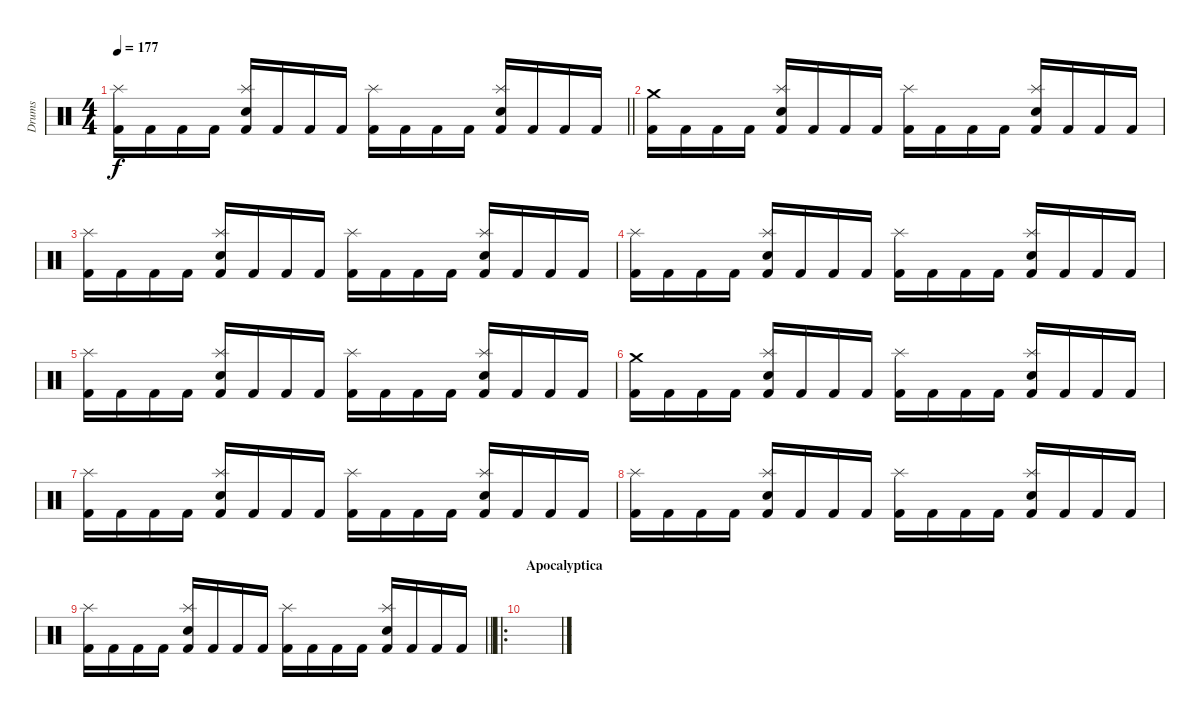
\track ("Drums" "Drums") {instrument percussion}
\staff {score}
\articulation defaults
\ts (4 4)
\tempo 177
\clef neutral
\barLineRight lightlight
\ks c
("Kick (hit) 2" "Splash (hit)").16{dy f} "Kick (hit) 2".16 "Kick (hit) 2".16 "Kick (hit) 2".16 ("Kick (hit) 2" "Snare (hit) 2" "Splash (hit)").16 "Kick (hit) 2".16 "Kick (hit) 2".16 "Kick (hit) 2".16 ("Kick (hit) 2" "Splash (hit)").16 "Kick (hit) 2".16 "Kick (hit) 2".16 "Kick (hit) 2".16 ("Kick (hit) 2" "Snare (hit) 2" "Splash (hit)").16 "Kick (hit) 2".16 "Kick (hit) 2".16 "Kick (hit) 2".16 |
("Kick (hit) 2" "Crash medium (hit)").16 "Kick (hit) 2".16 "Kick (hit) 2".16 "Kick (hit) 2".16 ("Kick (hit) 2" "Snare (hit) 2" "Splash (hit)").16 "Kick (hit) 2".16 "Kick (hit) 2".16 "Kick (hit) 2".16 ("Kick (hit) 2" "Splash (hit)").16 "Kick (hit) 2".16 "Kick (hit) 2".16 "Kick (hit) 2".16 ("Kick (hit) 2" "Snare (hit) 2" "Splash (hit)").16 "Kick (hit) 2".16 "Kick (hit) 2".16 "Kick (hit) 2".16 |
("Kick (hit) 2" "Splash (hit)").16 "Kick (hit) 2".16 "Kick (hit) 2".16 "Kick (hit) 2".16 ("Kick (hit) 2" "Snare (hit) 2" "Splash (hit)").16 "Kick (hit) 2".16 "Kick (hit) 2".16 "Kick (hit) 2".16 ("Kick (hit) 2" "Splash (hit)").16 "Kick (hit) 2".16 "Kick (hit) 2".16 "Kick (hit) 2".16 ("Kick (hit) 2" "Snare (hit) 2" "Splash (hit)").16 "Kick (hit) 2".16 "Kick (hit) 2".16 "Kick (hit) 2".16 |
("Kick (hit) 2" "Splash (hit)").16 "Kick (hit) 2".16 "Kick (hit) 2".16 "Kick (hit) 2".16 ("Kick (hit) 2" "Snare (hit) 2" "Splash (hit)").16 "Kick (hit) 2".16 "Kick (hit) 2".16 "Kick (hit) 2".16 ("Kick (hit) 2" "Splash (hit)").16 "Kick (hit) 2".16 "Kick (hit) 2".16 "Kick (hit) 2".16 ("Kick (hit) 2" "Snare (hit) 2" "Splash (hit)").16 "Kick (hit) 2".16 "Kick (hit) 2".16 "Kick (hit) 2".16 |
("Kick (hit) 2" "Splash (hit)").16 "Kick (hit) 2".16 "Kick (hit) 2".16 "Kick (hit) 2".16 ("Kick (hit) 2" "Snare (hit) 2" "Splash (hit)").16 "Kick (hit) 2".16 "Kick (hit) 2".16 "Kick (hit) 2".16 ("Kick (hit) 2" "Splash (hit)").16 "Kick (hit) 2".16 "Kick (hit) 2".16 "Kick (hit) 2".16 ("Kick (hit) 2" "Snare (hit) 2" "Splash (hit)").16 "Kick (hit) 2".16 "Kick (hit) 2".16 "Kick (hit) 2".16 |
("Kick (hit) 2" "Crash medium (hit)").16 "Kick (hit) 2".16 "Kick (hit) 2".16 "Kick (hit) 2".16 ("Kick (hit) 2" "Snare (hit) 2" "Splash (hit)").16 "Kick (hit) 2".16 "Kick (hit) 2".16 "Kick (hit) 2".16 ("Kick (hit) 2" "Splash (hit)").16 "Kick (hit) 2".16 "Kick (hit) 2".16 "Kick (hit) 2".16 ("Kick (hit) 2" "Snare (hit) 2" "Splash (hit)").16 "Kick (hit) 2".16 "Kick (hit) 2".16 "Kick (hit) 2".16 |
("Kick (hit) 2" "Splash (hit)").16 "Kick (hit) 2".16 "Kick (hit) 2".16 "Kick (hit) 2".16 ("Kick (hit) 2" "Snare (hit) 2" "Splash (hit)").16 "Kick (hit) 2".16 "Kick (hit) 2".16 "Kick (hit) 2".16 ("Kick (hit) 2" "Splash (hit)").16 "Kick (hit) 2".16 "Kick (hit) 2".16 "Kick (hit) 2".16 ("Kick (hit) 2" "Snare (hit) 2" "Splash (hit)").16 "Kick (hit) 2".16 "Kick (hit) 2".16 "Kick (hit) 2".16 |
("Kick (hit) 2" "Splash (hit)").16 "Kick (hit) 2".16 "Kick (hit) 2".16 "Kick (hit) 2".16 ("Kick (hit) 2" "Snare (hit) 2" "Splash (hit)").16 "Kick (hit) 2".16 "Kick (hit) 2".16 "Kick (hit) 2".16 ("Kick (hit) 2" "Splash (hit)").16 "Kick (hit) 2".16 "Kick (hit) 2".16 "Kick (hit) 2".16 ("Kick (hit) 2" "Snare (hit) 2" "Splash (hit)").16 "Kick (hit) 2".16 "Kick (hit) 2".16 "Kick (hit) 2".16 |
\barLineRight lightlight
("Kick (hit) 2" "Splash (hit)").16 "Kick (hit) 2".16 "Kick (hit) 2".16 "Kick (hit) 2".16 ("Kick (hit) 2" "Snare (hit) 2" "Splash (hit)").16 "Kick (hit) 2".16 "Kick (hit) 2".16 "Kick (hit) 2".16 ("Kick (hit) 2" "Splash (hit)").16 "Kick (hit) 2".16 "Kick (hit) 2".16 "Kick (hit) 2".16 ("Kick (hit) 2" "Snare (hit) 2" "Splash (hit)").16 "Kick (hit) 2".16 "Kick (hit) 2".16 "Kick (hit) 2".16 |
\ro
\section ("" "Apocalyptica")
